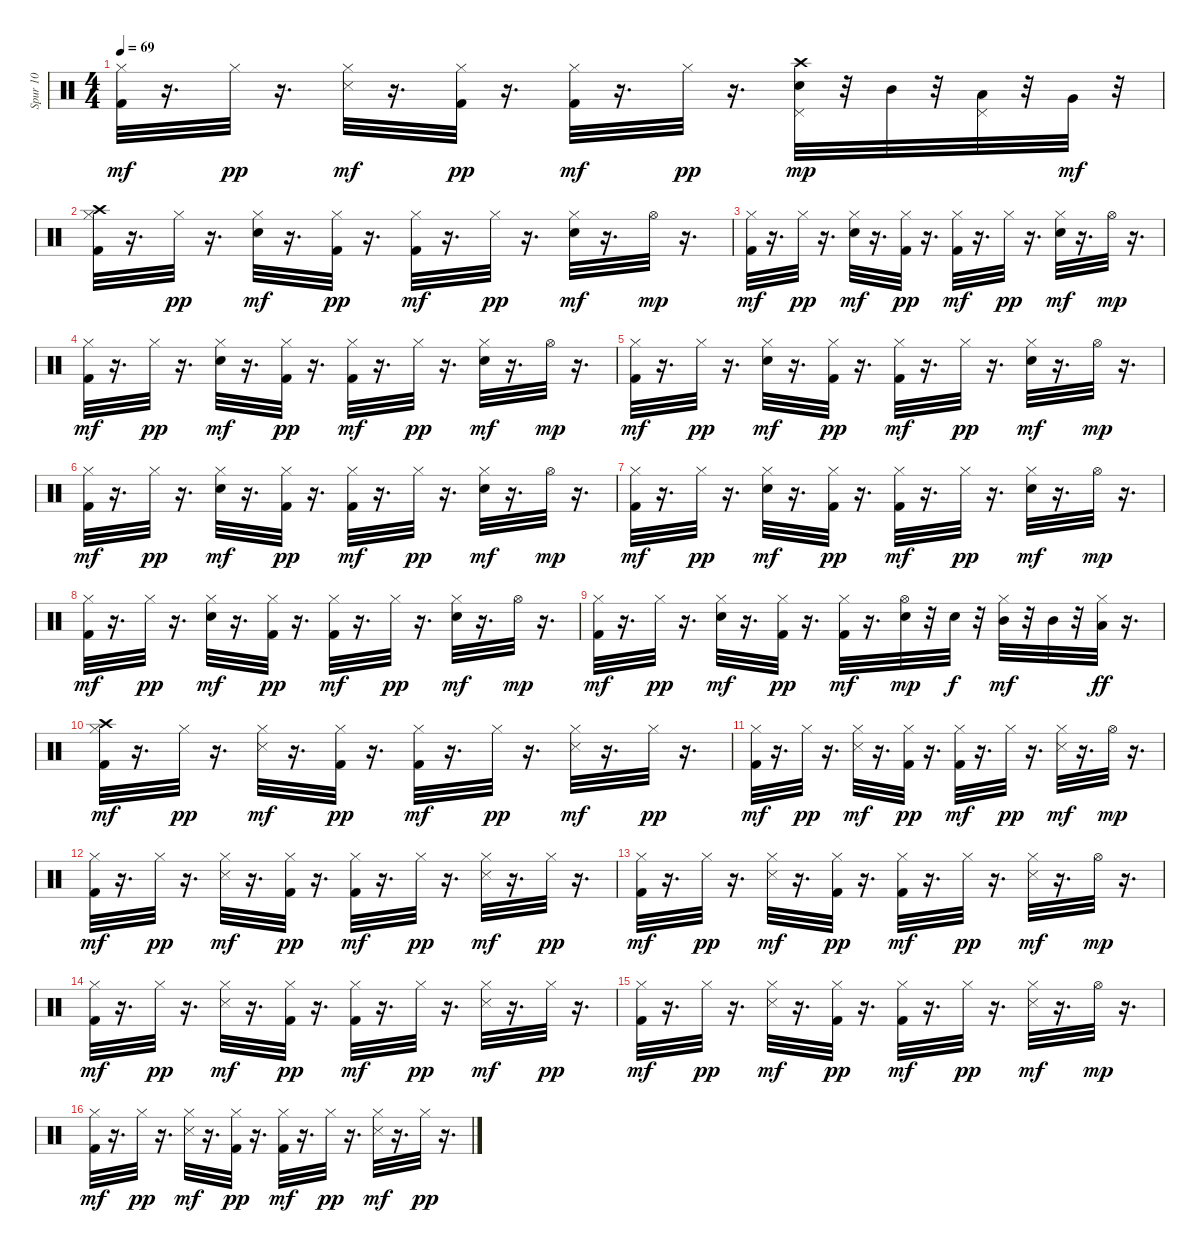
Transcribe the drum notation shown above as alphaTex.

\track ("Spur 10" "Spur 10") {instrument percussion}
\staff {score}
\articulation defaults
\ts (4 4)
\tempo 69
\clef neutral
\ks c
("Kick (hit) 2" "Hi-Hat (closed)").32{dy mf} r.16{d} "Hi-Hat (closed)".32{dy pp} r.16{d} ("Snare (side stick) 3" "Hi-Hat (closed)").32{dy mf} r.16{d} ("Kick (hit) 2" "Hi-Hat (closed)").32{dy pp} r.16{d} ("Kick (hit) 2" "Hi-Hat (closed)").32{dy mf} r.16{d} "Hi-Hat (closed)".32{dy pp} r.16{d} ("Electric Snare (hit)" "Pedal Hi-Hat (hit)" "Crash high (hit)").32{dy mp} r.32 "Mid Tom (hit)".32 r.32 ("Pedal Hi-Hat (hit)" "Low Tom (hit)").32 r.32 "Very Low Tom (hit)".32{dy mf} r.32 |
("Crash high (hit)" "Kick (hit) 2" "Hi-Hat (closed)").32 r.16{d} "Hi-Hat (closed)".32{dy pp} r.16{d} ("Electric Snare (hit)" "Hi-Hat (closed)").32{dy mf} r.16{d} ("Kick (hit) 2" "Hi-Hat (closed)").32{dy pp} r.16{d} ("Kick (hit) 2" "Hi-Hat (closed)").32{dy mf} r.16{d} "Hi-Hat (closed)".32{dy pp} r.16{d} ("Electric Snare (hit)" "Hi-Hat (closed)").32{dy mf} r.16{d} "Hi-Hat (open)".32{dy mp} r.16{d} |
("Kick (hit) 2" "Hi-Hat (closed)").32{dy mf} r.16{d} "Hi-Hat (closed)".32{dy pp} r.16{d} ("Electric Snare (hit)" "Hi-Hat (closed)").32{dy mf} r.16{d} ("Kick (hit) 2" "Hi-Hat (closed)").32{dy pp} r.16{d} ("Kick (hit) 2" "Hi-Hat (closed)").32{dy mf} r.16{d} "Hi-Hat (closed)".32{dy pp} r.16{d} ("Electric Snare (hit)" "Hi-Hat (closed)").32{dy mf} r.16{d} "Hi-Hat (open)".32{dy mp} r.16{d} |
("Kick (hit) 2" "Hi-Hat (closed)").32{dy mf} r.16{d} "Hi-Hat (closed)".32{dy pp} r.16{d} ("Electric Snare (hit)" "Hi-Hat (closed)").32{dy mf} r.16{d} ("Kick (hit) 2" "Hi-Hat (closed)").32{dy pp} r.16{d} ("Kick (hit) 2" "Hi-Hat (closed)").32{dy mf} r.16{d} "Hi-Hat (closed)".32{dy pp} r.16{d} ("Electric Snare (hit)" "Hi-Hat (closed)").32{dy mf} r.16{d} "Hi-Hat (open)".32{dy mp} r.16{d} |
("Kick (hit) 2" "Hi-Hat (closed)").32{dy mf} r.16{d} "Hi-Hat (closed)".32{dy pp} r.16{d} ("Electric Snare (hit)" "Hi-Hat (closed)").32{dy mf} r.16{d} ("Kick (hit) 2" "Hi-Hat (closed)").32{dy pp} r.16{d} ("Kick (hit) 2" "Hi-Hat (closed)").32{dy mf} r.16{d} "Hi-Hat (closed)".32{dy pp} r.16{d} ("Electric Snare (hit)" "Hi-Hat (closed)").32{dy mf} r.16{d} "Hi-Hat (open)".32{dy mp} r.16{d} |
("Kick (hit) 2" "Hi-Hat (closed)").32{dy mf} r.16{d} "Hi-Hat (closed)".32{dy pp} r.16{d} ("Electric Snare (hit)" "Hi-Hat (closed)").32{dy mf} r.16{d} ("Kick (hit) 2" "Hi-Hat (closed)").32{dy pp} r.16{d} ("Kick (hit) 2" "Hi-Hat (closed)").32{dy mf} r.16{d} "Hi-Hat (closed)".32{dy pp} r.16{d} ("Electric Snare (hit)" "Hi-Hat (closed)").32{dy mf} r.16{d} "Hi-Hat (open)".32{dy mp} r.16{d} |
("Kick (hit) 2" "Hi-Hat (closed)").32{dy mf} r.16{d} "Hi-Hat (closed)".32{dy pp} r.16{d} ("Electric Snare (hit)" "Hi-Hat (closed)").32{dy mf} r.16{d} ("Kick (hit) 2" "Hi-Hat (closed)").32{dy pp} r.16{d} ("Kick (hit) 2" "Hi-Hat (closed)").32{dy mf} r.16{d} "Hi-Hat (closed)".32{dy pp} r.16{d} ("Electric Snare (hit)" "Hi-Hat (closed)").32{dy mf} r.16{d} "Hi-Hat (open)".32{dy mp} r.16{d} |
("Kick (hit) 2" "Hi-Hat (closed)").32{dy mf} r.16{d} "Hi-Hat (closed)".32{dy pp} r.16{d} ("Electric Snare (hit)" "Hi-Hat (closed)").32{dy mf} r.16{d} ("Kick (hit) 2" "Hi-Hat (closed)").32{dy pp} r.16{d} ("Kick (hit) 2" "Hi-Hat (closed)").32{dy mf} r.16{d} "Hi-Hat (closed)".32{dy pp} r.16{d} ("Electric Snare (hit)" "Hi-Hat (closed)").32{dy mf} r.16{d} "Hi-Hat (open)".32{dy mp} r.16{d} |
("Kick (hit) 2" "Hi-Hat (closed)").32{dy mf} r.16{d} "Hi-Hat (closed)".32{dy pp} r.16{d} ("Electric Snare (hit)" "Hi-Hat (closed)").32{dy mf} r.16{d} ("Kick (hit) 2" "Hi-Hat (closed)").32{dy pp} r.16{d} ("Kick (hit) 2" "Hi-Hat (closed)").32{dy mf} r.16{d} ("Electric Snare (hit)" "Hi-Hat (open)").32{dy mp} r.32 "Electric Snare (hit)".32{dy f} r.32 ("Hi-Hat (closed)" "Mid Tom (hit)").32{dy mf} r.32 "Mid Tom (hit)".32 r.32 ("Hi-Hat (closed)" "Low Tom (hit)").32{dy ff} r.16{d} |
("Crash high (hit)" "Kick (hit) 2" "Hi-Hat (closed)").32{dy mf} r.16{d} "Hi-Hat (closed)".32{dy pp} r.16{d} ("Snare (side stick) 3" "Hi-Hat (closed)").32{dy mf} r.16{d} ("Kick (hit) 2" "Hi-Hat (closed)").32{dy pp} r.16{d} ("Kick (hit) 2" "Hi-Hat (closed)").32{dy mf} r.16{d} "Hi-Hat (closed)".32{dy pp} r.16{d} ("Snare (side stick) 3" "Hi-Hat (closed)").32{dy mf} r.16{d} "Hi-Hat (closed)".32{dy pp} r.16{d} |
("Kick (hit) 2" "Hi-Hat (closed)").32{dy mf} r.16{d} "Hi-Hat (closed)".32{dy pp} r.16{d} ("Snare (side stick) 3" "Hi-Hat (closed)").32{dy mf} r.16{d} ("Kick (hit) 2" "Hi-Hat (closed)").32{dy pp} r.16{d} ("Kick (hit) 2" "Hi-Hat (closed)").32{dy mf} r.16{d} "Hi-Hat (closed)".32{dy pp} r.16{d} ("Snare (side stick) 3" "Hi-Hat (closed)").32{dy mf} r.16{d} "Hi-Hat (open)".32{dy mp} r.16{d} |
("Kick (hit) 2" "Hi-Hat (closed)").32{dy mf} r.16{d} "Hi-Hat (closed)".32{dy pp} r.16{d} ("Snare (side stick) 3" "Hi-Hat (closed)").32{dy mf} r.16{d} ("Kick (hit) 2" "Hi-Hat (closed)").32{dy pp} r.16{d} ("Kick (hit) 2" "Hi-Hat (closed)").32{dy mf} r.16{d} "Hi-Hat (closed)".32{dy pp} r.16{d} ("Snare (side stick) 3" "Hi-Hat (closed)").32{dy mf} r.16{d} "Hi-Hat (closed)".32{dy pp} r.16{d} |
("Kick (hit) 2" "Hi-Hat (closed)").32{dy mf} r.16{d} "Hi-Hat (closed)".32{dy pp} r.16{d} ("Snare (side stick) 3" "Hi-Hat (closed)").32{dy mf} r.16{d} ("Kick (hit) 2" "Hi-Hat (closed)").32{dy pp} r.16{d} ("Kick (hit) 2" "Hi-Hat (closed)").32{dy mf} r.16{d} "Hi-Hat (closed)".32{dy pp} r.16{d} ("Snare (side stick) 3" "Hi-Hat (closed)").32{dy mf} r.16{d} "Hi-Hat (open)".32{dy mp} r.16{d} |
("Kick (hit) 2" "Hi-Hat (closed)").32{dy mf} r.16{d} "Hi-Hat (closed)".32{dy pp} r.16{d} ("Snare (side stick) 3" "Hi-Hat (closed)").32{dy mf} r.16{d} ("Kick (hit) 2" "Hi-Hat (closed)").32{dy pp} r.16{d} ("Kick (hit) 2" "Hi-Hat (closed)").32{dy mf} r.16{d} "Hi-Hat (closed)".32{dy pp} r.16{d} ("Snare (side stick) 3" "Hi-Hat (closed)").32{dy mf} r.16{d} "Hi-Hat (closed)".32{dy pp} r.16{d} |
("Kick (hit) 2" "Hi-Hat (closed)").32{dy mf} r.16{d} "Hi-Hat (closed)".32{dy pp} r.16{d} ("Snare (side stick) 3" "Hi-Hat (closed)").32{dy mf} r.16{d} ("Kick (hit) 2" "Hi-Hat (closed)").32{dy pp} r.16{d} ("Kick (hit) 2" "Hi-Hat (closed)").32{dy mf} r.16{d} "Hi-Hat (closed)".32{dy pp} r.16{d} ("Snare (side stick) 3" "Hi-Hat (closed)").32{dy mf} r.16{d} "Hi-Hat (open)".32{dy mp} r.16{d} |
("Kick (hit) 2" "Hi-Hat (closed)").32{dy mf} r.16{d} "Hi-Hat (closed)".32{dy pp} r.16{d} ("Snare (side stick) 3" "Hi-Hat (closed)").32{dy mf} r.16{d} ("Kick (hit) 2" "Hi-Hat (closed)").32{dy pp} r.16{d} ("Kick (hit) 2" "Hi-Hat (closed)").32{dy mf} r.16{d} "Hi-Hat (closed)".32{dy pp} r.16{d} ("Snare (side stick) 3" "Hi-Hat (closed)").32{dy mf} r.16{d} "Hi-Hat (closed)".32{dy pp} r.16{d}
